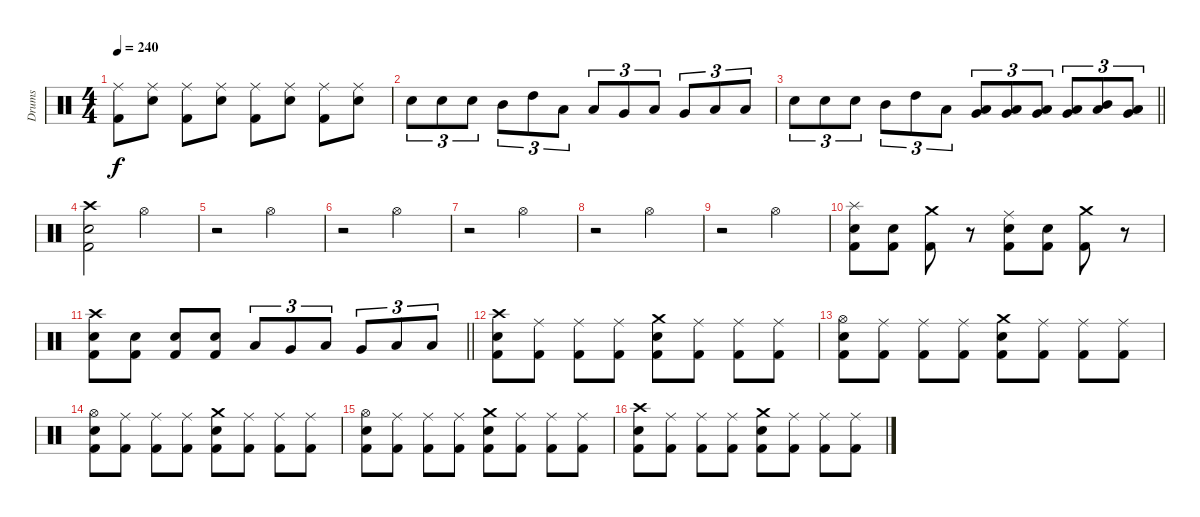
\track ("Drums" "Drums") {instrument percussion}
\staff {score}
\articulation defaults
\ts (4 4)
\tempo 240
\clef neutral
\ks c
("Ride (middle)" "Kick (hit) 2").8{dy f} ("Ride (middle)" "Electric Snare (hit)").8 ("Ride (middle)" "Kick (hit) 2").8 ("Ride (middle)" "Electric Snare (hit)").8 ("Ride (middle)" "Kick (hit) 2").8 ("Ride (middle)" "Electric Snare (hit)").8 ("Ride (middle)" "Kick (hit) 2").8 ("Ride (middle)" "Electric Snare (hit)").8 |
"Electric Snare (hit)".8{tu (3 2)} "Electric Snare (hit)".8{tu (3 2)} "Electric Snare (hit)".8{tu (3 2)} "Mid Tom (hit)".8{tu (3 2)} "High Tom (hit)".8{tu (3 2)} "Low Tom (hit)".8{tu (3 2)} "Low Floor Tom (hit)".8{tu (3 2)} "Very Low Tom (hit)".8{tu (3 2)} "Low Floor Tom (hit)".8{tu (3 2)} "Very Low Tom (hit)".8{tu (3 2)} "Low Tom (hit)".8{tu (3 2)} "Low Floor Tom (hit)".8{tu (3 2)} |
\barLineRight lightlight "Electric Snare (hit)".8{tu (3 2)} "Electric Snare (hit)".8{tu (3 2)} "Electric Snare (hit)".8{tu (3 2)} "Mid Tom (hit)".8{tu (3 2)} "High Tom (hit)".8{tu (3 2)} "Low Tom (hit)".8{tu (3 2)}
("Very Low Tom (hit)" "Low Floor Tom (hit)").8{tu (3 2)} ("Low Tom (hit)" "Very Low Tom (hit)").8{tu (3 2)} ("Very Low Tom (hit)" "Low Floor Tom (hit)").8{tu (3 2)} ("Low Tom (hit)" "Very Low Tom (hit)").8{tu (3 2)} ("Mid Tom (hit)" "Low Tom (hit)").8{tu (3 2)} ("Very Low Tom (hit)" "Low Floor Tom (hit)").8{tu (3 2)} |
("Crash high (hit)" "Electric Snare (hit)" "Kick (hit) 2").2 "Hi-Hat (open)".2 |
r.2 "Hi-Hat (open)".2 |
r.2 "Hi-Hat (open)".2 |
r.2 "Hi-Hat (open)".2 |
r.2 "Hi-Hat (open)".2 |
r.2 "Hi-Hat (open)".2 |
("Splash (hit)" "Electric Snare (hit)" "Kick (hit) 2").8 ("Electric Snare (hit)" "Kick (hit) 2").8 ("Crash medium (hit)" "Kick (hit) 2").8 r.8 ("Ride (middle)" "Electric Snare (hit)" "Kick (hit) 2").8 ("Electric Snare (hit)" "Kick (hit) 2").8 ("Crash medium (hit)" "Kick (hit) 2").8 r.8 |
\barLineRight lightlight
("Crash high (hit)" "Electric Snare (hit)" "Kick (hit) 2").8 ("Electric Snare (hit)" "Kick (hit) 2").8 ("Electric Snare (hit)" "Kick (hit) 2").8 ("Electric Snare (hit)" "Kick (hit) 2").8 "Low Floor Tom (hit)".8{tu (3 2)} "Very Low Tom (hit)".8{tu (3 2)} "Low Floor Tom (hit)".8{tu (3 2)} "Very Low Tom (hit)".8{tu (3 2)} "Low Tom (hit)".8{tu (3 2)} "Low Floor Tom (hit)".8{tu (3 2)} |
("Crash high (hit)" "Electric Snare (hit)" "Kick (hit) 2").8 ("Ride (middle)" "Kick (hit) 2").8 ("Ride (middle)" "Kick (hit) 2").8 ("Ride (middle)" "Kick (hit) 2").8 ("Crash medium (hit)" "Electric Snare (hit)" "Kick (hit) 2").8 ("Ride (middle)" "Kick (hit) 2").8 ("Ride (middle)" "Kick (hit) 2").8 ("Ride (middle)" "Kick (hit) 2").8 |
("Hi-Hat (open)" "Electric Snare (hit)" "Kick (hit) 2").8 ("Ride (middle)" "Kick (hit) 2").8 ("Ride (middle)" "Kick (hit) 2").8 ("Ride (middle)" "Kick (hit) 2").8 ("Crash medium (hit)" "Electric Snare (hit)" "Kick (hit) 2").8 ("Ride (middle)" "Kick (hit) 2").8 ("Ride (middle)" "Kick (hit) 2").8 ("Ride (middle)" "Kick (hit) 2").8 |
("Hi-Hat (open)" "Electric Snare (hit)" "Kick (hit) 2").8 ("Ride (middle)" "Kick (hit) 2").8 ("Ride (middle)" "Kick (hit) 2").8 ("Ride (middle)" "Kick (hit) 2").8 ("Crash medium (hit)" "Electric Snare (hit)" "Kick (hit) 2").8 ("Ride (middle)" "Kick (hit) 2").8 ("Ride (middle)" "Kick (hit) 2").8 ("Ride (middle)" "Kick (hit) 2").8 |
("Hi-Hat (open)" "Electric Snare (hit)" "Kick (hit) 2").8 ("Ride (middle)" "Kick (hit) 2").8 ("Ride (middle)" "Kick (hit) 2").8 ("Ride (middle)" "Kick (hit) 2").8 ("Crash medium (hit)" "Electric Snare (hit)" "Kick (hit) 2").8 ("Ride (middle)" "Kick (hit) 2").8 ("Ride (middle)" "Kick (hit) 2").8 ("Ride (middle)" "Kick (hit) 2").8 |
("Crash high (hit)" "Electric Snare (hit)" "Kick (hit) 2").8 ("Ride (middle)" "Kick (hit) 2").8 ("Ride (middle)" "Kick (hit) 2").8 ("Ride (middle)" "Kick (hit) 2").8 ("Crash medium (hit)" "Electric Snare (hit)" "Kick (hit) 2").8 ("Ride (middle)" "Kick (hit) 2").8 ("Ride (middle)" "Kick (hit) 2").8 ("Ride (middle)" "Kick (hit) 2").8
